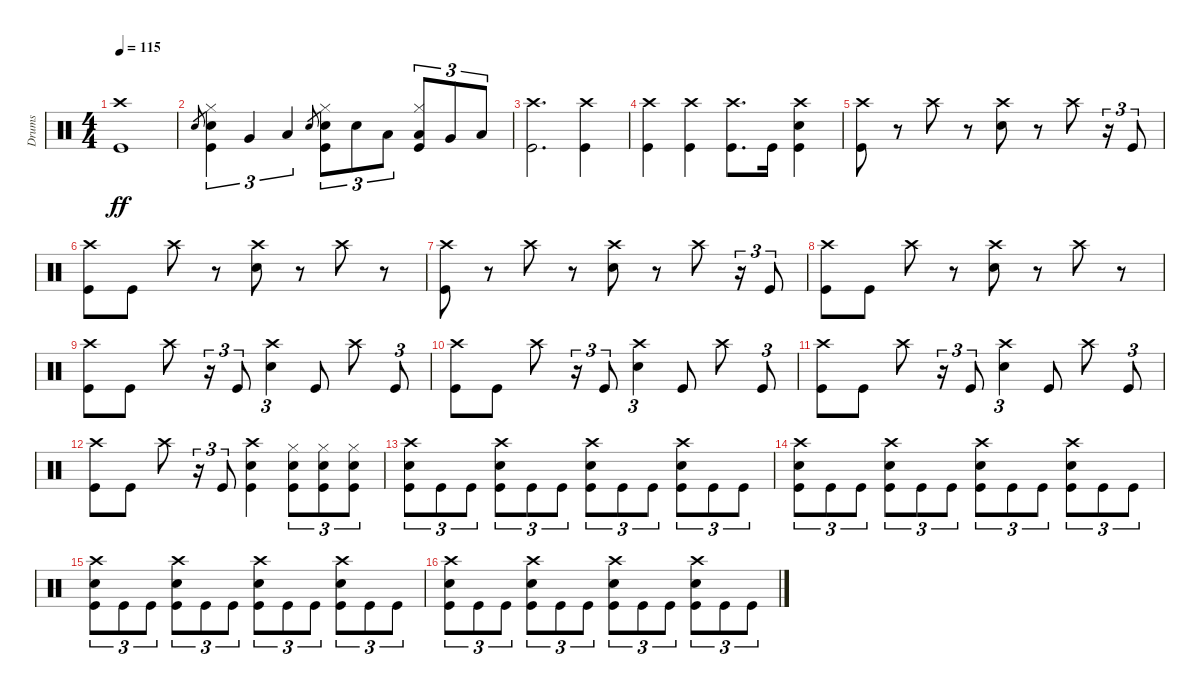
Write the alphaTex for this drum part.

\track ("Drums" "Drums") {instrument percussion}
\staff {score}
\articulation defaults
\ts (4 4)
\tempo 115
\clef neutral
\ks c
("Crash high (hit)" "Kick (hit)").1{dy ff} |
"Snare (hit) 2".8{gr} ("Hi-Hat (closed)" "Snare (hit) 2" "Kick (hit)").4{tu (3 2)} "Very Low Tom (hit)".4{tu (3 2)} "Low Floor Tom (hit)".4{tu (3 2)} "Snare (hit) 2".8{gr} ("Hi-Hat (closed)" "Snare (hit) 2" "Kick (hit)").8{tu (3 2)} "Snare (hit) 2".8{tu (3 2)} "Low Tom (hit)".8{tu (3 2)} ("Hi-Hat (closed)" "Low Floor Tom (hit)" "Kick (hit)").8{tu (3 2)} "Very Low Tom (hit)".8{tu (3 2)} "Low Floor Tom (hit)".8{tu (3 2)} |
("Crash high (hit)" "Kick (hit)").2{d} ("Crash high (hit)" "Kick (hit)").4 |
("Crash high (hit)" "Kick (hit)").4 ("Crash high (hit)" "Kick (hit)").4 ("Crash high (hit)" "Kick (hit)").8{d} "Kick (hit)".16 ("Crash high (hit)" "Snare (hit) 2" "Kick (hit)").4 |
("Crash high (hit)" "Kick (hit)").8 r.8 "Crash high (hit)".8 r.8 ("Crash high (hit)" "Snare (hit) 2").8 r.8 "Crash high (hit)".8 r.16{tu (3 2)} "Kick (hit)".8{tu (3 2)} |
("Crash high (hit)" "Kick (hit)").8 "Kick (hit)".8 "Crash high (hit)".8 r.8 ("Crash high (hit)" "Snare (hit) 2").8 r.8 "Crash high (hit)".8 r.8 |
("Crash high (hit)" "Kick (hit)").8 r.8 "Crash high (hit)".8 r.8 ("Crash high (hit)" "Snare (hit) 2").8 r.8 "Crash high (hit)".8 r.16{tu (3 2)} "Kick (hit)".8{tu (3 2)} |
("Crash high (hit)" "Kick (hit)").8 "Kick (hit)".8 "Crash high (hit)".8 r.8 ("Crash high (hit)" "Snare (hit) 2").8 r.8 "Crash high (hit)".8 r.8 |
("Crash high (hit)" "Kick (hit)").8 "Kick (hit)".8 "Crash high (hit)".8 r.16{tu (3 2)} "Kick (hit)".8{tu (3 2)} ("Crash high (hit)" "Snare (hit) 2").4{tu (3 2)} "Kick (hit)".8 "Crash high (hit)".8 "Kick (hit)".8{tu (3 2)} |
("Crash high (hit)" "Kick (hit)").8 "Kick (hit)".8 "Crash high (hit)".8 r.16{tu (3 2)} "Kick (hit)".8{tu (3 2)} ("Crash high (hit)" "Snare (hit) 2").4{tu (3 2)} "Kick (hit)".8 "Crash high (hit)".8 "Kick (hit)".8{tu (3 2)} |
("Crash high (hit)" "Kick (hit)").8 "Kick (hit)".8 "Crash high (hit)".8 r.16{tu (3 2)} "Kick (hit)".8{tu (3 2)} ("Crash high (hit)" "Snare (hit) 2").4{tu (3 2)} "Kick (hit)".8 "Crash high (hit)".8 "Kick (hit)".8{tu (3 2)} |
("Crash high (hit)" "Kick (hit)").8 "Kick (hit)".8 "Crash high (hit)".8 r.16{tu (3 2)} "Kick (hit)".8{tu (3 2)} ("Crash high (hit)" "Snare (hit) 2" "Kick (hit)").4 ("Hi-Hat (closed)" "Snare (hit) 2" "Kick (hit)").8{tu (3 2)} ("Hi-Hat (closed)" "Snare (hit) 2" "Kick (hit)").8{tu (3 2)} ("Hi-Hat (closed)" "Snare (hit) 2" "Kick (hit)").8{tu (3 2)} |
("Crash high (hit)" "Snare (hit) 2" "Kick (hit)").8{tu (3 2)} "Kick (hit)".8{tu (3 2)} "Kick (hit)".8{tu (3 2)} ("Crash high (hit)" "Snare (hit) 2" "Kick (hit)").8{tu (3 2)} "Kick (hit)".8{tu (3 2)} "Kick (hit)".8{tu (3 2)} ("Crash high (hit)" "Snare (hit) 2" "Kick (hit)").8{tu (3 2)} "Kick (hit)".8{tu (3 2)} "Kick (hit)".8{tu (3 2)} ("Crash high (hit)" "Snare (hit) 2" "Kick (hit)").8{tu (3 2)} "Kick (hit)".8{tu (3 2)} "Kick (hit)".8{tu (3 2)} |
("Crash high (hit)" "Snare (hit) 2" "Kick (hit)").8{tu (3 2)} "Kick (hit)".8{tu (3 2)} "Kick (hit)".8{tu (3 2)} ("Crash high (hit)" "Snare (hit) 2" "Kick (hit)").8{tu (3 2)} "Kick (hit)".8{tu (3 2)} "Kick (hit)".8{tu (3 2)} ("Crash high (hit)" "Snare (hit) 2" "Kick (hit)").8{tu (3 2)} "Kick (hit)".8{tu (3 2)} "Kick (hit)".8{tu (3 2)} ("Crash high (hit)" "Snare (hit) 2" "Kick (hit)").8{tu (3 2)} "Kick (hit)".8{tu (3 2)} "Kick (hit)".8{tu (3 2)} |
("Crash high (hit)" "Snare (hit) 2" "Kick (hit)").8{tu (3 2)} "Kick (hit)".8{tu (3 2)} "Kick (hit)".8{tu (3 2)} ("Crash high (hit)" "Snare (hit) 2" "Kick (hit)").8{tu (3 2)} "Kick (hit)".8{tu (3 2)} "Kick (hit)".8{tu (3 2)} ("Crash high (hit)" "Snare (hit) 2" "Kick (hit)").8{tu (3 2)} "Kick (hit)".8{tu (3 2)} "Kick (hit)".8{tu (3 2)} ("Crash high (hit)" "Snare (hit) 2" "Kick (hit)").8{tu (3 2)} "Kick (hit)".8{tu (3 2)} "Kick (hit)".8{tu (3 2)} |
("Crash high (hit)" "Snare (hit) 2" "Kick (hit)").8{tu (3 2)} "Kick (hit)".8{tu (3 2)} "Kick (hit)".8{tu (3 2)} ("Crash high (hit)" "Snare (hit) 2" "Kick (hit)").8{tu (3 2)} "Kick (hit)".8{tu (3 2)} "Kick (hit)".8{tu (3 2)} ("Crash high (hit)" "Snare (hit) 2" "Kick (hit)").8{tu (3 2)} "Kick (hit)".8{tu (3 2)} "Kick (hit)".8{tu (3 2)} ("Crash high (hit)" "Snare (hit) 2" "Kick (hit)").8{tu (3 2)} "Kick (hit)".8{tu (3 2)} "Kick (hit)".8{tu (3 2)}
